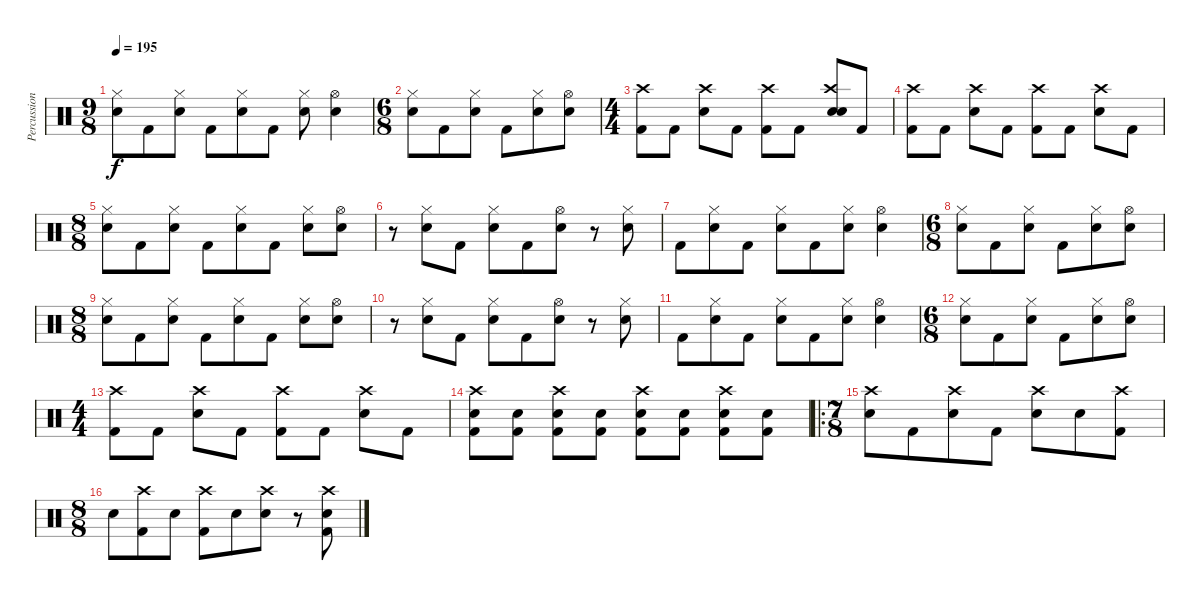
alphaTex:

\track ("Percussion" "Percussion") {instrument percussion}
\staff {score}
\articulation defaults
\ts (9 8)
\tempo 195
\clef neutral
\ks c
("Hi-Hat (closed)" "Electric Snare (hit)").8{dy f} "Kick (hit) 2".8 ("Hi-Hat (closed)" "Electric Snare (hit)").8 "Kick (hit) 2".8 ("Hi-Hat (closed)" "Electric Snare (hit)").8 "Kick (hit) 2".8 ("Hi-Hat (closed)" "Electric Snare (hit)").8 ("Hi-Hat (open)" "Electric Snare (hit)").4 |
\ts (6 8)
("Hi-Hat (closed)" "Electric Snare (hit)").8 "Kick (hit) 2".8 ("Hi-Hat (closed)" "Electric Snare (hit)").8 "Kick (hit) 2".8 ("Hi-Hat (closed)" "Electric Snare (hit)").8 ("Hi-Hat (open)" "Electric Snare (hit)").8 |
\ts (4 4)
("Kick (hit) 2" "Crash high (hit)").8 "Kick (hit) 2".8 ("Crash high (hit)" "Electric Snare (hit)").8 "Kick (hit) 2".8 ("Kick (hit) 2" "Crash high (hit)").8 "Kick (hit) 2".8 ("Snare (hit)" "Crash high (hit)" "Electric Snare (hit)").8 "Kick (hit) 2".8 |
("Kick (hit) 2" "Crash high (hit)").8 "Kick (hit) 2".8 ("Crash high (hit)" "Electric Snare (hit)").8 "Kick (hit) 2".8 ("Kick (hit) 2" "Crash high (hit)").8 "Kick (hit) 2".8 ("Crash high (hit)" "Electric Snare (hit)").8 "Kick (hit) 2".8 |
\ts (8 8)
("Hi-Hat (closed)" "Electric Snare (hit)").8 "Kick (hit) 2".8 ("Hi-Hat (closed)" "Electric Snare (hit)").8 "Kick (hit) 2".8 ("Hi-Hat (closed)" "Electric Snare (hit)").8 "Kick (hit) 2".8 ("Hi-Hat (closed)" "Electric Snare (hit)").8 ("Hi-Hat (open)" "Electric Snare (hit)").8 |
r.8 ("Hi-Hat (closed)" "Electric Snare (hit)").8 "Kick (hit) 2".8 ("Hi-Hat (closed)" "Electric Snare (hit)").8 "Kick (hit) 2".8 ("Hi-Hat (open)" "Electric Snare (hit)").8 r.8 ("Hi-Hat (closed)" "Electric Snare (hit)").8 |
"Kick (hit) 2".8 ("Hi-Hat (closed)" "Electric Snare (hit)").8 "Kick (hit) 2".8 ("Hi-Hat (closed)" "Electric Snare (hit)").8 "Kick (hit) 2".8 ("Hi-Hat (closed)" "Electric Snare (hit)").8 ("Hi-Hat (open)" "Electric Snare (hit)").4 |
\ts (6 8)
("Hi-Hat (closed)" "Electric Snare (hit)").8 "Kick (hit) 2".8 ("Hi-Hat (closed)" "Electric Snare (hit)").8 "Kick (hit) 2".8 ("Hi-Hat (closed)" "Electric Snare (hit)").8 ("Hi-Hat (open)" "Electric Snare (hit)").8 |
\ts (8 8)
("Hi-Hat (closed)" "Electric Snare (hit)").8 "Kick (hit) 2".8 ("Hi-Hat (closed)" "Electric Snare (hit)").8 "Kick (hit) 2".8 ("Hi-Hat (closed)" "Electric Snare (hit)").8 "Kick (hit) 2".8 ("Hi-Hat (closed)" "Electric Snare (hit)").8 ("Hi-Hat (open)" "Electric Snare (hit)").8 |
r.8 ("Hi-Hat (closed)" "Electric Snare (hit)").8 "Kick (hit) 2".8 ("Hi-Hat (closed)" "Electric Snare (hit)").8 "Kick (hit) 2".8 ("Hi-Hat (open)" "Electric Snare (hit)").8 r.8 ("Hi-Hat (closed)" "Electric Snare (hit)").8 |
"Kick (hit) 2".8 ("Hi-Hat (closed)" "Electric Snare (hit)").8 "Kick (hit) 2".8 ("Hi-Hat (closed)" "Electric Snare (hit)").8 "Kick (hit) 2".8 ("Hi-Hat (closed)" "Electric Snare (hit)").8 ("Hi-Hat (open)" "Electric Snare (hit)").4 |
\ts (6 8)
("Hi-Hat (closed)" "Electric Snare (hit)").8 "Kick (hit) 2".8 ("Hi-Hat (closed)" "Electric Snare (hit)").8 "Kick (hit) 2".8 ("Hi-Hat (closed)" "Electric Snare (hit)").8 ("Hi-Hat (open)" "Electric Snare (hit)").8 |
\ts (4 4)
("Kick (hit) 2" "Crash high (hit)").8 "Kick (hit) 2".8 ("Crash high (hit)" "Electric Snare (hit)").8 "Kick (hit) 2".8 ("Kick (hit) 2" "Crash high (hit)").8 "Kick (hit) 2".8 ("Crash high (hit)" "Electric Snare (hit)").8 "Kick (hit) 2".8 |
("Kick (hit) 2" "Crash high (hit)" "Electric Snare (hit)").8 ("Kick (hit) 2" "Electric Snare (hit)").8 ("Kick (hit) 2" "Crash high (hit)" "Electric Snare (hit)").8 ("Kick (hit) 2" "Electric Snare (hit)").8 ("Kick (hit) 2" "Crash high (hit)" "Electric Snare (hit)").8 ("Kick (hit) 2" "Electric Snare (hit)").8 ("Kick (hit) 2" "Crash high (hit)" "Electric Snare (hit)").8 ("Kick (hit) 2" "Electric Snare (hit)").8 |
\ro
\ts (7 8)
("Crash high (hit)" "Electric Snare (hit)").8 "Kick (hit) 2".8 ("Crash high (hit)" "Electric Snare (hit)").8 "Kick (hit) 2".8 ("Crash high (hit)" "Electric Snare (hit)").8 "Electric Snare (hit)".8 ("Kick (hit) 2" "Crash high (hit)").8 |
\ts (8 8)
"Electric Snare (hit)".8 ("Kick (hit) 2" "Crash high (hit)").8 "Electric Snare (hit)".8 ("Kick (hit) 2" "Crash high (hit)").8 "Electric Snare (hit)".8 ("Crash high (hit)" "Electric Snare (hit)").8 r.8 ("Kick (hit) 2" "Crash high (hit)" "Electric Snare (hit)").8
